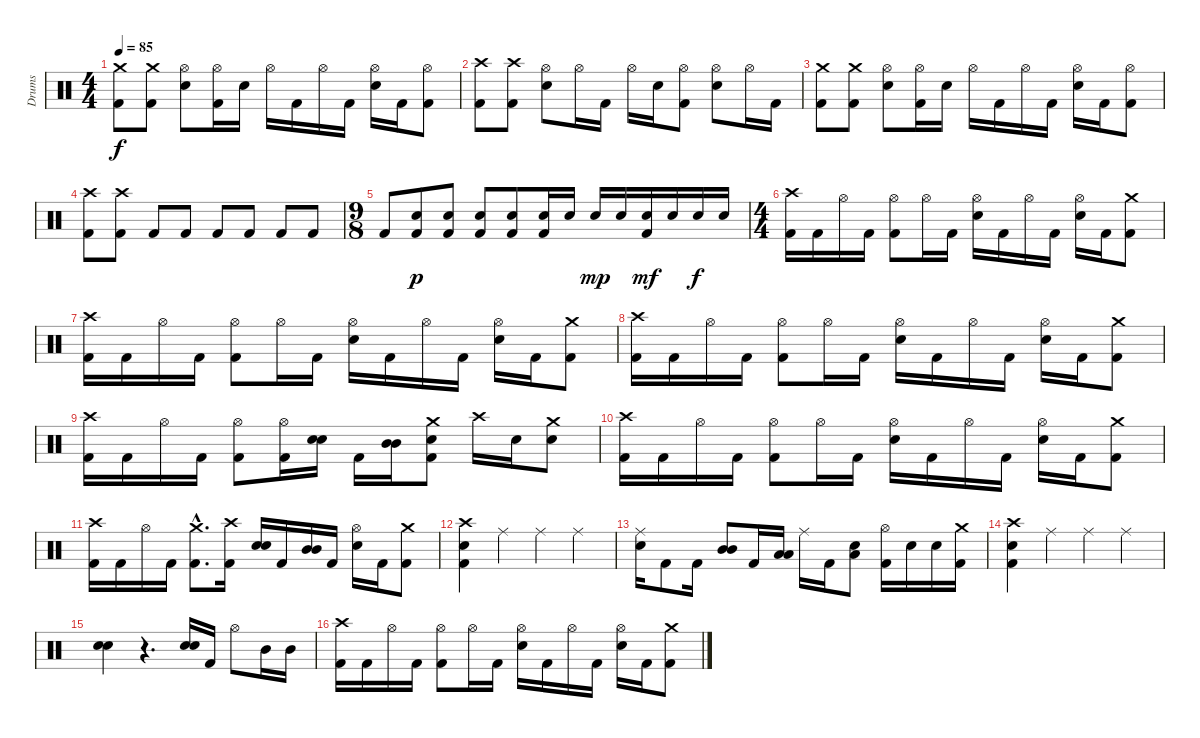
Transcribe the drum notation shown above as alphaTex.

\track ("Drums" "Drums") {instrument percussion}
\staff {score}
\articulation defaults
\ts (4 4)
\tempo 85
\clef neutral
\ks c
("Crash medium (hit)" "Kick (hit) 2").8{dy f} ("Crash medium (hit)" "Kick (hit) 2").8 ("Hi-Hat (open)" "Snare (hit) 2").8 ("Hi-Hat (open)" "Kick (hit) 2").16 "Snare (hit) 2".16 "Hi-Hat (open)".16 "Kick (hit) 2".16 "Hi-Hat (open)".16 "Kick (hit) 2".16 ("Hi-Hat (open)" "Snare (hit) 2").16 "Kick (hit) 2".16 ("Hi-Hat (open)" "Kick (hit) 2").8 |
("Crash high (hit)" "Kick (hit) 2").8 ("Crash high (hit)" "Kick (hit) 2").8 ("Hi-Hat (open)" "Snare (hit) 2").8 "Hi-Hat (open)".16 "Kick (hit) 2".16 "Hi-Hat (open)".16 "Snare (hit) 2".16 ("Hi-Hat (open)" "Kick (hit) 2").8 ("Hi-Hat (open)" "Snare (hit) 2").8 "Hi-Hat (open)".16 "Kick (hit) 2".16 |
("Crash medium (hit)" "Kick (hit) 2").8 ("Crash medium (hit)" "Kick (hit) 2").8 ("Hi-Hat (open)" "Snare (hit) 2").8 ("Hi-Hat (open)" "Kick (hit) 2").16 "Snare (hit) 2".16 "Hi-Hat (open)".16 "Kick (hit) 2".16 "Hi-Hat (open)".16 "Kick (hit) 2".16 ("Hi-Hat (open)" "Snare (hit) 2").16 "Kick (hit) 2".16 ("Hi-Hat (open)" "Kick (hit) 2").8 |
("Crash high (hit)" "Kick (hit) 2").8 ("Crash high (hit)" "Kick (hit) 2").8 "Kick (hit) 2".8 "Kick (hit) 2".8 "Kick (hit) 2".8 "Kick (hit) 2".8 "Kick (hit) 2".8 "Kick (hit) 2".8 |
\ts (9 8)
"Kick (hit) 2".8 ("Snare (hit) 2" "Kick (hit) 2").8{dy p} ("Snare (hit) 2" "Kick (hit) 2").8 ("Snare (hit) 2" "Kick (hit) 2").8 ("Snare (hit) 2" "Kick (hit) 2").8 ("Snare (hit) 2" "Kick (hit) 2").16 "Snare (hit) 2".16 "Snare (hit) 2".16{dy mp} "Snare (hit) 2".16 ("Snare (hit) 2" "Kick (hit) 2").16{dy mf} "Snare (hit) 2".16 "Snare (hit) 2".16{dy f} "Snare (hit) 2".16 |
\ts (4 4)
("Crash high (hit)" "Kick (hit) 2").16 "Kick (hit) 2".16 "Hi-Hat (open)".16 "Kick (hit) 2".16 ("Hi-Hat (open)" "Kick (hit) 2").8 "Hi-Hat (open)".16 "Kick (hit) 2".16 ("Hi-Hat (open)" "Snare (hit) 2").16 "Kick (hit) 2".16 "Hi-Hat (open)".16 "Kick (hit) 2".16 ("Hi-Hat (open)" "Snare (hit) 2").16 "Kick (hit) 2".16 ("Crash medium (hit)" "Kick (hit) 2").8 |
("Crash high (hit)" "Kick (hit) 2").16 "Kick (hit) 2".16 "Hi-Hat (open)".16 "Kick (hit) 2".16 ("Hi-Hat (open)" "Kick (hit) 2").8 "Hi-Hat (open)".16 "Kick (hit) 2".16 ("Hi-Hat (open)" "Snare (hit) 2").16 "Kick (hit) 2".16 "Hi-Hat (open)".16 "Kick (hit) 2".16 ("Hi-Hat (open)" "Snare (hit) 2").16 "Kick (hit) 2".16 ("Crash medium (hit)" "Kick (hit) 2").8 |
("Crash high (hit)" "Kick (hit) 2").16 "Kick (hit) 2".16 "Hi-Hat (open)".16 "Kick (hit) 2".16 ("Hi-Hat (open)" "Kick (hit) 2").8 "Hi-Hat (open)".16 "Kick (hit) 2".16 ("Hi-Hat (open)" "Snare (hit) 2").16 "Kick (hit) 2".16 "Hi-Hat (open)".16 "Kick (hit) 2".16 ("Hi-Hat (open)" "Snare (hit) 2").16 "Kick (hit) 2".16 ("Crash medium (hit)" "Kick (hit) 2").8 |
("Crash high (hit)" "Kick (hit) 2").16 "Kick (hit) 2".16 "Hi-Hat (open)".16 "Kick (hit) 2".16 ("Hi-Hat (open)" "Kick (hit) 2").8 ("Hi-Hat (open)" "Kick (hit) 2").16 ("Snare (hit) 2" "Snare (hit) 2").16{bd 240} "Kick (hit) 2".16 ("Mid Tom (hit)" "Mid Tom (hit)").16{bd 240} ("Crash medium (hit)" "Snare (hit) 2" "Kick (hit) 2").8 "Crash high (hit)".16 "Snare (hit) 2".16 ("Crash medium (hit)" "Snare (hit) 2").8 |
("Crash high (hit)" "Kick (hit) 2").16 "Kick (hit) 2".16 "Hi-Hat (open)".16 "Kick (hit) 2".16 ("Hi-Hat (open)" "Kick (hit) 2").8 "Hi-Hat (open)".16 "Kick (hit) 2".16 ("Hi-Hat (open)" "Snare (hit) 2").16 "Kick (hit) 2".16 "Hi-Hat (open)".16 "Kick (hit) 2".16 ("Hi-Hat (open)" "Snare (hit) 2").16 "Kick (hit) 2".16 ("Crash medium (hit)" "Kick (hit) 2").8 |
("Crash high (hit)" "Kick (hit) 2").16 "Kick (hit) 2".16 "Hi-Hat (open)".16 "Kick (hit) 2".16 ("Crash medium (hit)"{hac} "Kick (hit) 2"{hac}).8{d} ("Crash high (hit)" "Kick (hit) 2").16 ("Snare (hit) 2" "Snare (hit) 2").16{bd 240} "Kick (hit) 2".16 ("Mid Tom (hit)" "Mid Tom (hit)").16{bd 240} "Kick (hit) 2".16 ("Hi-Hat (open)" "Snare (hit) 2").16 "Kick (hit) 2".16 ("Crash medium (hit)" "Kick (hit) 2").8 |
("Crash high (hit)" "Snare (hit) 2" "Kick (hit) 2").4 "Ride (middle)".4 "Ride (middle)".4 "Ride (middle)".4 |
("Ride (middle)" "Snare (hit) 2").16 "Kick (hit) 2".8 "Kick (hit) 2".16 ("Mid Tom (hit)" "Mid Tom (hit)").8{bd 240} "Kick (hit) 2".16 ("Low Tom (hit)" "Low Tom (hit)").16{bd 240} "Ride (middle)".16 "Kick (hit) 2".16 ("Low Floor Tom (hit)" "Snare (hit) 2").8 ("Hi-Hat (open)" "Kick (hit) 2").16 "Snare (hit) 2".16 "Snare (hit) 2".16 ("Crash medium (hit)" "Kick (hit) 2").16 |
("Crash high (hit)" "Snare (hit) 2" "Kick (hit) 2").4 "Ride (middle)".4 "Ride (middle)".4 "Ride (middle)".4 |
("Snare (hit) 2" "Snare (hit) 2").4{bd 240} r.4{d} ("Snare (hit) 2" "Snare (hit) 2").16{bd 240} "Kick (hit) 2".16 "Hi-Hat (open)".8 "Mid Tom (hit)".16 "Mid Tom (hit)".16 |
("Crash high (hit)" "Kick (hit) 2").16 "Kick (hit) 2".16 "Hi-Hat (open)".16 "Kick (hit) 2".16 ("Hi-Hat (open)" "Kick (hit) 2").8 "Hi-Hat (open)".16 "Kick (hit) 2".16 ("Hi-Hat (open)" "Snare (hit) 2").16 "Kick (hit) 2".16 "Hi-Hat (open)".16 "Kick (hit) 2".16 ("Hi-Hat (open)" "Snare (hit) 2").16 "Kick (hit) 2".16 ("Crash medium (hit)" "Kick (hit) 2").8
